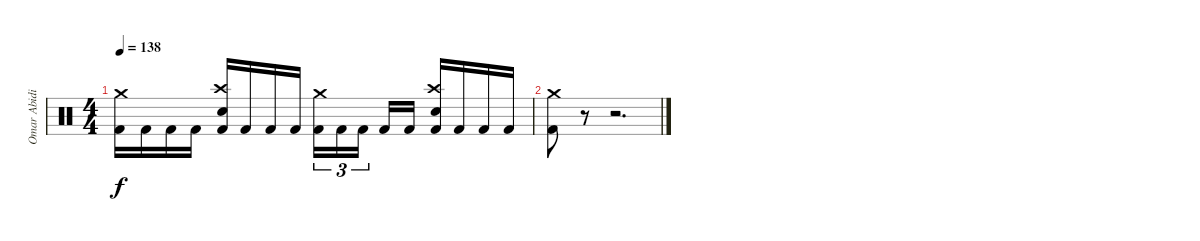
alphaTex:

\track ("Omar Abidi" "Omar Abidi") {instrument percussion}
\staff {score}
\articulation defaults
\ts (4 4)
\tempo 138
\clef neutral
\ks c
("Crash medium (hit)" "Kick (hit) 2").16{dy f} "Kick (hit) 2".16 "Kick (hit) 2".16 "Kick (hit) 2".16 ("Crash high (hit)" "Electric Snare (hit)" "Kick (hit) 2").16 "Kick (hit) 2".16 "Kick (hit) 2".16 "Kick (hit) 2".16 ("Crash medium (hit)" "Kick (hit) 2").16{tu (3 2)} "Kick (hit) 2".16{tu (3 2)} "Kick (hit) 2".16{tu (3 2) beam splitsecondary} "Kick (hit) 2".16 "Kick (hit) 2".16 ("Crash high (hit)" "Electric Snare (hit)" "Kick (hit) 2").16 "Kick (hit) 2".16 "Kick (hit) 2".16 "Kick (hit) 2".16 |
("Crash medium (hit)" "Kick (hit) 2").8 r.8 r.2{d volume 0}
